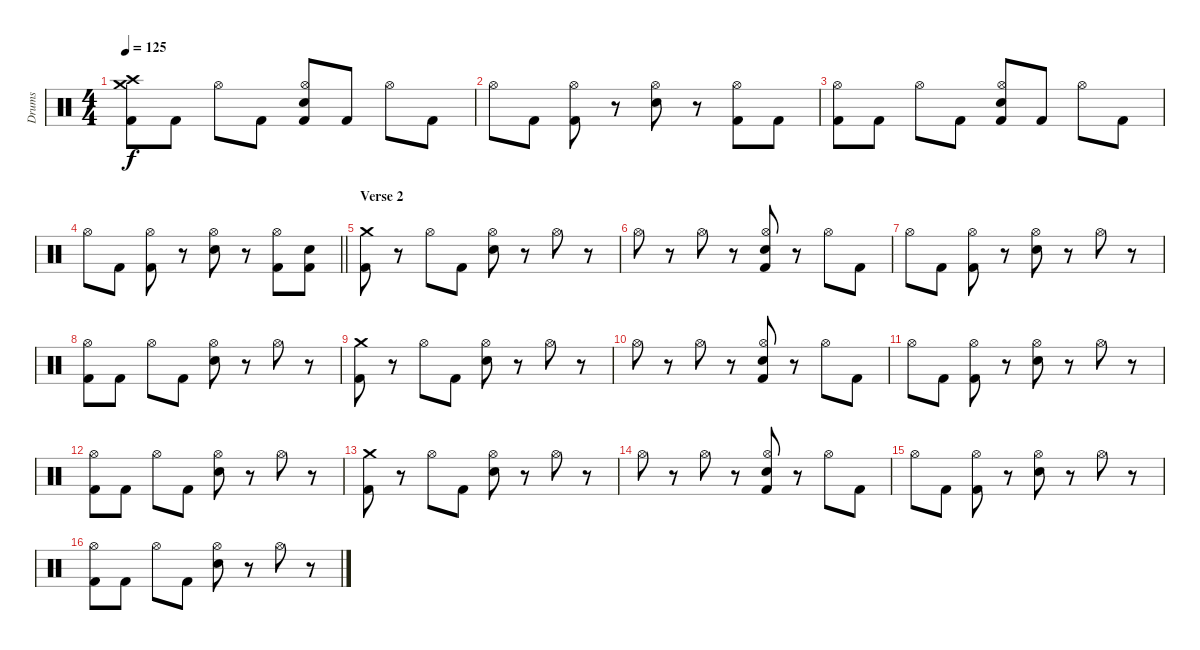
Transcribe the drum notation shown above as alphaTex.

\track ("Drums " "Drums ") {instrument percussion}
\staff {score}
\articulation defaults
\ts (4 4)
\tempo 125
\clef neutral
\ks c
("Crash medium (hit)" "Crash high (hit)" "Kick (hit) 2").8{dy f} "Kick (hit) 2".8 "Hi-Hat (open)".8 "Kick (hit) 2".8 ("Hi-Hat (open)" "Electric Snare (hit)" "Kick (hit) 2").8 "Kick (hit) 2".8 "Hi-Hat (open)".8 "Kick (hit) 2".8 |
"Hi-Hat (open)".8 "Kick (hit) 2".8 ("Hi-Hat (open)" "Kick (hit) 2").8 r.8 ("Hi-Hat (open)" "Electric Snare (hit)").8 r.8 ("Hi-Hat (open)" "Kick (hit) 2").8 "Kick (hit) 2".8 |
("Hi-Hat (open)" "Kick (hit) 2").8 "Kick (hit) 2".8 "Hi-Hat (open)".8 "Kick (hit) 2".8 ("Hi-Hat (open)" "Electric Snare (hit)" "Kick (hit) 2").8 "Kick (hit) 2".8 "Hi-Hat (open)".8 "Kick (hit) 2".8 |
\barLineRight lightlight "Hi-Hat (open)".8 "Kick (hit) 2".8
("Hi-Hat (open)" "Kick (hit) 2").8 r.8 ("Hi-Hat (open)" "Electric Snare (hit)").8 r.8 ("Hi-Hat (open)" "Kick (hit) 2").8 ("Electric Snare (hit)" "Kick (hit) 2").8 |
\section ("" "Verse 2 ")
("Crash medium (hit)" "Kick (hit) 2").8 r.8 "Hi-Hat (open)".8 "Kick (hit) 2".8 ("Hi-Hat (open)" "Electric Snare (hit)").8 r.8 "Hi-Hat (open)".8 r.8 |
"Hi-Hat (open)".8 r.8 "Hi-Hat (open)".8 r.8 ("Hi-Hat (open)" "Electric Snare (hit)" "Kick (hit) 2").8 r.8 "Hi-Hat (open)".8 "Kick (hit) 2".8 |
"Hi-Hat (open)".8 "Kick (hit) 2".8 ("Hi-Hat (open)" "Kick (hit) 2").8 r.8 ("Hi-Hat (open)" "Electric Snare (hit)").8 r.8 "Hi-Hat (open)".8 r.8 |
("Hi-Hat (open)" "Kick (hit) 2").8 "Kick (hit) 2".8 "Hi-Hat (open)".8 "Kick (hit) 2".8 ("Hi-Hat (open)" "Electric Snare (hit)").8 r.8 "Hi-Hat (open)".8 r.8 |
("Crash medium (hit)" "Kick (hit) 2").8 r.8 "Hi-Hat (open)".8 "Kick (hit) 2".8 ("Hi-Hat (open)" "Electric Snare (hit)").8 r.8 "Hi-Hat (open)".8 r.8 |
"Hi-Hat (open)".8 r.8 "Hi-Hat (open)".8 r.8 ("Hi-Hat (open)" "Electric Snare (hit)" "Kick (hit) 2").8 r.8 "Hi-Hat (open)".8 "Kick (hit) 2".8 |
"Hi-Hat (open)".8 "Kick (hit) 2".8 ("Hi-Hat (open)" "Kick (hit) 2").8 r.8 ("Hi-Hat (open)" "Electric Snare (hit)").8 r.8 "Hi-Hat (open)".8 r.8 |
("Hi-Hat (open)" "Kick (hit) 2").8 "Kick (hit) 2".8 "Hi-Hat (open)".8 "Kick (hit) 2".8 ("Hi-Hat (open)" "Electric Snare (hit)").8 r.8 "Hi-Hat (open)".8 r.8 |
("Crash medium (hit)" "Kick (hit) 2").8 r.8 "Hi-Hat (open)".8 "Kick (hit) 2".8 ("Hi-Hat (open)" "Electric Snare (hit)").8 r.8 "Hi-Hat (open)".8 r.8 |
"Hi-Hat (open)".8 r.8 "Hi-Hat (open)".8 r.8 ("Hi-Hat (open)" "Electric Snare (hit)" "Kick (hit) 2").8 r.8 "Hi-Hat (open)".8 "Kick (hit) 2".8 |
"Hi-Hat (open)".8 "Kick (hit) 2".8 ("Hi-Hat (open)" "Kick (hit) 2").8 r.8 ("Hi-Hat (open)" "Electric Snare (hit)").8 r.8 "Hi-Hat (open)".8 r.8 |
("Hi-Hat (open)" "Kick (hit) 2").8 "Kick (hit) 2".8 "Hi-Hat (open)".8 "Kick (hit) 2".8 ("Hi-Hat (open)" "Electric Snare (hit)").8 r.8 "Hi-Hat (open)".8 r.8
